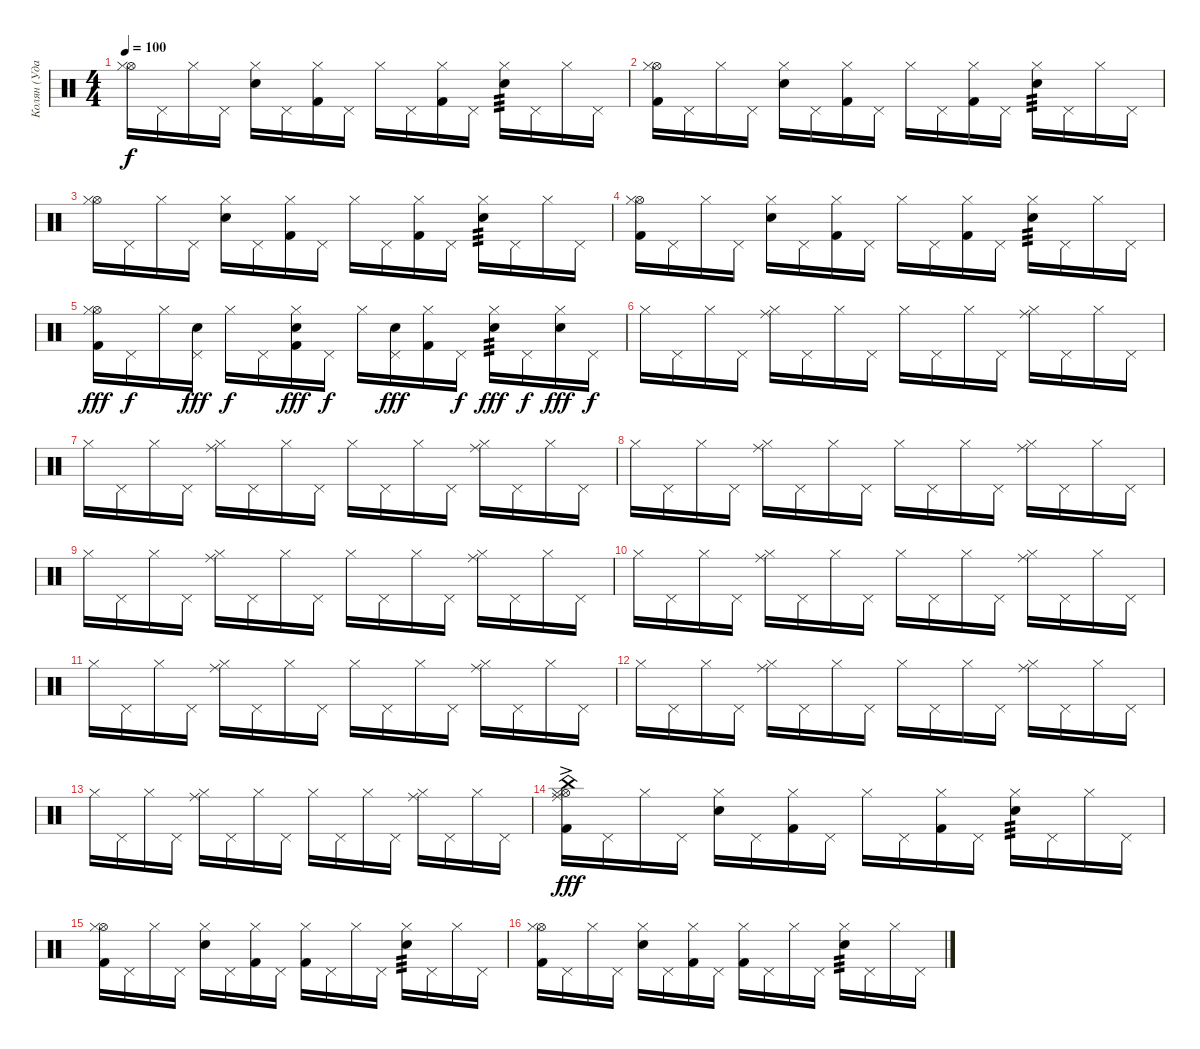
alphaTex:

\track ("Колян (Ударные)" "Колян (Уда") {instrument percussion}
\staff {score}
\articulation defaults
\ts (4 4)
\tempo 100
\clef neutral
\ks c
("Hi-Hat (open)" "Hi-Hat (closed)").16{dy f} "Pedal Hi-Hat (hit)".16 "Hi-Hat (closed)".16 "Pedal Hi-Hat (hit)".16 ("Snare (hit) 2" "Hi-Hat (closed)").16 "Pedal Hi-Hat (hit)".16 ("Kick (hit) 2" "Hi-Hat (closed)").16 "Pedal Hi-Hat (hit)".16 "Hi-Hat (closed)".16 "Pedal Hi-Hat (hit)".16 ("Kick (hit) 2" "Hi-Hat (closed)").16 "Pedal Hi-Hat (hit)".16 ("Snare (hit) 2" "Hi-Hat (closed)").16{tp 3} "Pedal Hi-Hat (hit)".16 "Hi-Hat (closed)".16 "Pedal Hi-Hat (hit)".16 |
("Kick (hit) 2" "Hi-Hat (open)" "Hi-Hat (closed)").16 "Pedal Hi-Hat (hit)".16 "Hi-Hat (closed)".16 "Pedal Hi-Hat (hit)".16 ("Snare (hit) 2" "Hi-Hat (closed)").16 "Pedal Hi-Hat (hit)".16 ("Kick (hit) 2" "Hi-Hat (closed)").16 "Pedal Hi-Hat (hit)".16 "Hi-Hat (closed)".16 "Pedal Hi-Hat (hit)".16 ("Kick (hit) 2" "Hi-Hat (closed)").16 "Pedal Hi-Hat (hit)".16 ("Snare (hit) 2" "Hi-Hat (closed)").16{tp 3} "Pedal Hi-Hat (hit)".16 "Hi-Hat (closed)".16 "Pedal Hi-Hat (hit)".16 |
("Hi-Hat (open)" "Hi-Hat (closed)").16 "Pedal Hi-Hat (hit)".16 "Hi-Hat (closed)".16 "Pedal Hi-Hat (hit)".16 ("Snare (hit) 2" "Hi-Hat (closed)").16 "Pedal Hi-Hat (hit)".16 ("Kick (hit) 2" "Hi-Hat (closed)").16 "Pedal Hi-Hat (hit)".16 "Hi-Hat (closed)".16 "Pedal Hi-Hat (hit)".16 ("Kick (hit) 2" "Hi-Hat (closed)").16 "Pedal Hi-Hat (hit)".16 ("Snare (hit) 2" "Hi-Hat (closed)").16{tp 3} "Pedal Hi-Hat (hit)".16 "Hi-Hat (closed)".16 "Pedal Hi-Hat (hit)".16 |
("Kick (hit) 2" "Hi-Hat (open)" "Hi-Hat (closed)").16 "Pedal Hi-Hat (hit)".16 "Hi-Hat (closed)".16 "Pedal Hi-Hat (hit)".16 ("Snare (hit) 2" "Hi-Hat (closed)").16 "Pedal Hi-Hat (hit)".16 ("Kick (hit) 2" "Hi-Hat (closed)").16 "Pedal Hi-Hat (hit)".16 "Hi-Hat (closed)".16 "Pedal Hi-Hat (hit)".16 ("Kick (hit) 2" "Hi-Hat (closed)").16 "Pedal Hi-Hat (hit)".16 ("Snare (hit) 2" "Hi-Hat (closed)").16{tp 3} "Pedal Hi-Hat (hit)".16 "Hi-Hat (closed)".16 "Pedal Hi-Hat (hit)".16 |
("Kick (hit) 2" "Hi-Hat (open)" "Hi-Hat (closed)").16{dy fff} "Pedal Hi-Hat (hit)".16{dy f} "Hi-Hat (closed)".16 ("Snare (hit) 2" "Pedal Hi-Hat (hit)").16{dy fff} "Hi-Hat (closed)".16{dy f} "Pedal Hi-Hat (hit)".16 ("Snare (hit) 2" "Kick (hit) 2" "Hi-Hat (closed)").16{dy fff} "Pedal Hi-Hat (hit)".16{dy f} "Hi-Hat (closed)".16 ("Snare (hit) 2" "Pedal Hi-Hat (hit)").16{dy fff} ("Kick (hit) 2" "Hi-Hat (closed)").16 "Pedal Hi-Hat (hit)".16{dy f} ("Snare (hit) 2" "Hi-Hat (closed)").16{tp 3 dy fff} "Pedal Hi-Hat (hit)".16{dy f} ("Snare (hit) 2" "Hi-Hat (closed)").16{dy fff} "Pedal Hi-Hat (hit)".16{dy f} |
"Hi-Hat (closed)".16{volume 8} "Pedal Hi-Hat (hit)".16 "Hi-Hat (closed)".16 "Pedal Hi-Hat (hit)".16 ("Ride (middle)" "Hi-Hat (closed)").16 "Pedal Hi-Hat (hit)".16 "Hi-Hat (closed)".16 "Pedal Hi-Hat (hit)".16 "Hi-Hat (closed)".16 "Pedal Hi-Hat (hit)".16 "Hi-Hat (closed)".16 "Pedal Hi-Hat (hit)".16 ("Ride (middle)" "Hi-Hat (closed)").16 "Pedal Hi-Hat (hit)".16 "Hi-Hat (closed)".16 "Pedal Hi-Hat (hit)".16 |
"Hi-Hat (closed)".16 "Pedal Hi-Hat (hit)".16 "Hi-Hat (closed)".16 "Pedal Hi-Hat (hit)".16 ("Ride (middle)" "Hi-Hat (closed)").16 "Pedal Hi-Hat (hit)".16 "Hi-Hat (closed)".16 "Pedal Hi-Hat (hit)".16 "Hi-Hat (closed)".16 "Pedal Hi-Hat (hit)".16 "Hi-Hat (closed)".16 "Pedal Hi-Hat (hit)".16 ("Ride (middle)" "Hi-Hat (closed)").16 "Pedal Hi-Hat (hit)".16 "Hi-Hat (closed)".16 "Pedal Hi-Hat (hit)".16 |
"Hi-Hat (closed)".16 "Pedal Hi-Hat (hit)".16 "Hi-Hat (closed)".16 "Pedal Hi-Hat (hit)".16 ("Ride (middle)" "Hi-Hat (closed)").16 "Pedal Hi-Hat (hit)".16 "Hi-Hat (closed)".16 "Pedal Hi-Hat (hit)".16 "Hi-Hat (closed)".16 "Pedal Hi-Hat (hit)".16 "Hi-Hat (closed)".16 "Pedal Hi-Hat (hit)".16 ("Ride (middle)" "Hi-Hat (closed)").16 "Pedal Hi-Hat (hit)".16 "Hi-Hat (closed)".16 "Pedal Hi-Hat (hit)".16 |
"Hi-Hat (closed)".16 "Pedal Hi-Hat (hit)".16 "Hi-Hat (closed)".16 "Pedal Hi-Hat (hit)".16 ("Ride (middle)" "Hi-Hat (closed)").16 "Pedal Hi-Hat (hit)".16 "Hi-Hat (closed)".16 "Pedal Hi-Hat (hit)".16 "Hi-Hat (closed)".16 "Pedal Hi-Hat (hit)".16 "Hi-Hat (closed)".16 "Pedal Hi-Hat (hit)".16 ("Ride (middle)" "Hi-Hat (closed)").16 "Pedal Hi-Hat (hit)".16 "Hi-Hat (closed)".16 "Pedal Hi-Hat (hit)".16 |
"Hi-Hat (closed)".16 "Pedal Hi-Hat (hit)".16 "Hi-Hat (closed)".16 "Pedal Hi-Hat (hit)".16 ("Ride (middle)" "Hi-Hat (closed)").16 "Pedal Hi-Hat (hit)".16 "Hi-Hat (closed)".16 "Pedal Hi-Hat (hit)".16 "Hi-Hat (closed)".16 "Pedal Hi-Hat (hit)".16 "Hi-Hat (closed)".16 "Pedal Hi-Hat (hit)".16 ("Ride (middle)" "Hi-Hat (closed)").16 "Pedal Hi-Hat (hit)".16 "Hi-Hat (closed)".16 "Pedal Hi-Hat (hit)".16 |
"Hi-Hat (closed)".16 "Pedal Hi-Hat (hit)".16 "Hi-Hat (closed)".16 "Pedal Hi-Hat (hit)".16 ("Ride (middle)" "Hi-Hat (closed)").16 "Pedal Hi-Hat (hit)".16 "Hi-Hat (closed)".16 "Pedal Hi-Hat (hit)".16 "Hi-Hat (closed)".16 "Pedal Hi-Hat (hit)".16 "Hi-Hat (closed)".16 "Pedal Hi-Hat (hit)".16 ("Ride (middle)" "Hi-Hat (closed)").16 "Pedal Hi-Hat (hit)".16 "Hi-Hat (closed)".16 "Pedal Hi-Hat (hit)".16 |
"Hi-Hat (closed)".16 "Pedal Hi-Hat (hit)".16 "Hi-Hat (closed)".16 "Pedal Hi-Hat (hit)".16 ("Ride (middle)" "Hi-Hat (closed)").16 "Pedal Hi-Hat (hit)".16 "Hi-Hat (closed)".16 "Pedal Hi-Hat (hit)".16 "Hi-Hat (closed)".16 "Pedal Hi-Hat (hit)".16 "Hi-Hat (closed)".16 "Pedal Hi-Hat (hit)".16 ("Ride (middle)" "Hi-Hat (closed)").16 "Pedal Hi-Hat (hit)".16 "Hi-Hat (closed)".16 "Pedal Hi-Hat (hit)".16 |
"Hi-Hat (closed)".16 "Pedal Hi-Hat (hit)".16 "Hi-Hat (closed)".16 "Pedal Hi-Hat (hit)".16 ("Ride (middle)" "Hi-Hat (closed)").16 "Pedal Hi-Hat (hit)".16 "Hi-Hat (closed)".16 "Pedal Hi-Hat (hit)".16 "Hi-Hat (closed)".16 "Pedal Hi-Hat (hit)".16 "Hi-Hat (closed)".16 "Pedal Hi-Hat (hit)".16 ("Ride (middle)" "Hi-Hat (closed)").16 "Pedal Hi-Hat (hit)".16 "Hi-Hat (closed)".16 "Pedal Hi-Hat (hit)".16 |
("Kick (hit) 2" "Hi-Hat (open)"{ac} "China (hit)" "Ride (middle)" "Hi-Hat (closed)").16{dy fff volume 13} "Pedal Hi-Hat (hit)".16 "Hi-Hat (closed)".16 "Pedal Hi-Hat (hit)".16 ("Snare (hit) 2" "Hi-Hat (closed)").16 "Pedal Hi-Hat (hit)".16 ("Kick (hit) 2" "Hi-Hat (closed)").16 "Pedal Hi-Hat (hit)".16 "Hi-Hat (closed)".16 "Pedal Hi-Hat (hit)".16 ("Kick (hit) 2" "Hi-Hat (closed)").16 "Pedal Hi-Hat (hit)".16 ("Snare (hit) 2" "Hi-Hat (closed)").16{tp 3} "Pedal Hi-Hat (hit)".16 "Hi-Hat (closed)".16 "Pedal Hi-Hat (hit)".16 |
("Kick (hit) 2" "Hi-Hat (open)" "Hi-Hat (closed)").16 "Pedal Hi-Hat (hit)".16 "Hi-Hat (closed)".16 "Pedal Hi-Hat (hit)".16 ("Snare (hit) 2" "Hi-Hat (closed)").16 "Pedal Hi-Hat (hit)".16 ("Kick (hit) 2" "Hi-Hat (closed)").16 "Pedal Hi-Hat (hit)".16 ("Kick (hit) 2" "Hi-Hat (closed)").16 "Pedal Hi-Hat (hit)".16 "Hi-Hat (closed)".16 "Pedal Hi-Hat (hit)".16 ("Snare (hit) 2" "Hi-Hat (closed)").16{tp 3} "Pedal Hi-Hat (hit)".16 "Hi-Hat (closed)".16 "Pedal Hi-Hat (hit)".16 |
("Kick (hit) 2" "Hi-Hat (open)" "Hi-Hat (closed)").16 "Pedal Hi-Hat (hit)".16 "Hi-Hat (closed)".16 "Pedal Hi-Hat (hit)".16 ("Snare (hit) 2" "Hi-Hat (closed)").16 "Pedal Hi-Hat (hit)".16 ("Kick (hit) 2" "Hi-Hat (closed)").16 "Pedal Hi-Hat (hit)".16 ("Kick (hit) 2" "Hi-Hat (closed)").16 "Pedal Hi-Hat (hit)".16 "Hi-Hat (closed)".16 "Pedal Hi-Hat (hit)".16 ("Snare (hit) 2" "Hi-Hat (closed)").16{tp 3} "Pedal Hi-Hat (hit)".16 "Hi-Hat (closed)".16 "Pedal Hi-Hat (hit)".16
